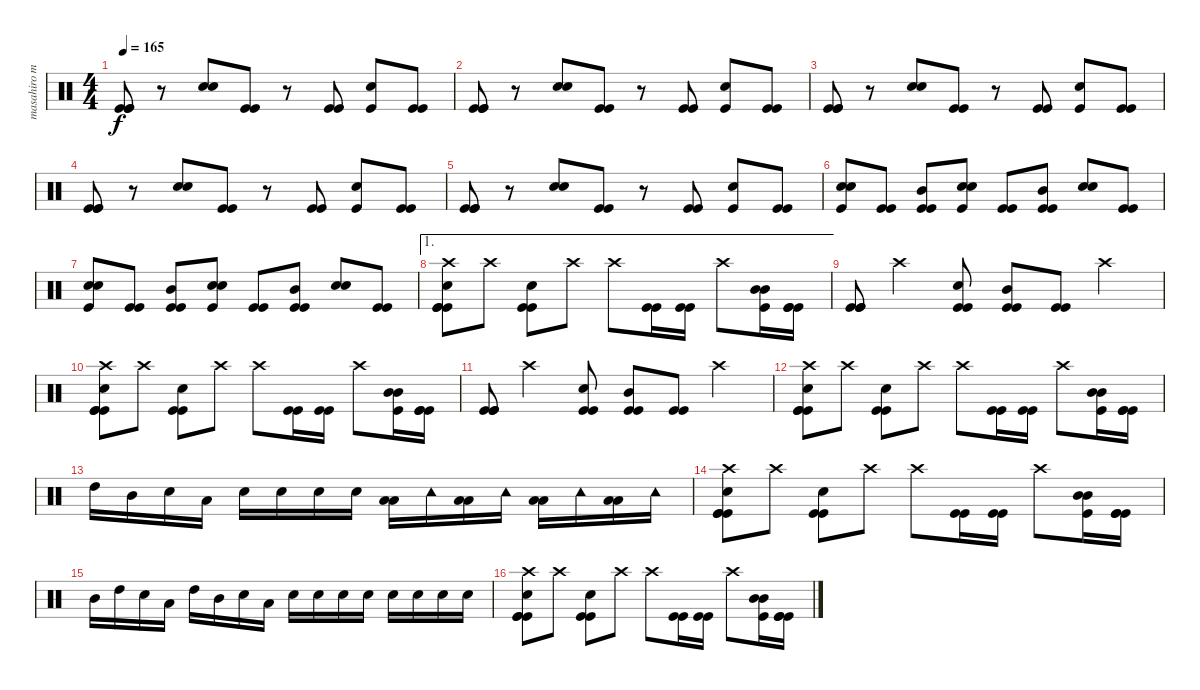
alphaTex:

\track ("masahiro muta" "masahiro m") {instrument percussion}
\staff {score}
\articulation defaults
\ts (4 4)
\tempo 165
\clef neutral
\ks c
("Kick (hit)" "Kick (hit)" "Kick (hit)").8{dy f} r.8 ("Electric Snare (hit)" "Electric Snare (hit)").8 ("Kick (hit)" "Kick (hit)").8 r.8 ("Kick (hit)" "Kick (hit)").8 ("Electric Snare (hit)" "Kick (hit)").8 ("Kick (hit)" "Kick (hit)").8 |
("Kick (hit)" "Kick (hit)" "Kick (hit)").8 r.8 ("Electric Snare (hit)" "Electric Snare (hit)").8 ("Kick (hit)" "Kick (hit)").8 r.8 ("Kick (hit)" "Kick (hit)").8 ("Electric Snare (hit)" "Kick (hit)").8 ("Kick (hit)" "Kick (hit)").8 |
("Kick (hit)" "Kick (hit)" "Kick (hit)").8 r.8 ("Electric Snare (hit)" "Electric Snare (hit)").8 ("Kick (hit)" "Kick (hit)").8 r.8 ("Kick (hit)" "Kick (hit)").8 ("Electric Snare (hit)" "Kick (hit)").8 ("Kick (hit)" "Kick (hit)").8 |
("Kick (hit)" "Kick (hit)" "Kick (hit)").8 r.8 ("Electric Snare (hit)" "Electric Snare (hit)").8 ("Kick (hit)" "Kick (hit)").8 r.8 ("Kick (hit)" "Kick (hit)").8 ("Electric Snare (hit)" "Kick (hit)").8 ("Kick (hit)" "Kick (hit)").8 |
("Kick (hit)" "Kick (hit)" "Kick (hit)").8 r.8 ("Electric Snare (hit)" "Electric Snare (hit)").8 ("Kick (hit)" "Kick (hit)").8 r.8 ("Kick (hit)" "Kick (hit)").8 ("Electric Snare (hit)" "Kick (hit)").8 ("Kick (hit)" "Kick (hit)").8 |
("Electric Snare (hit)" "Kick (hit)" "Electric Snare (hit)").8 ("Kick (hit)" "Kick (hit)").8 ("Mid Tom (hit)" "Kick (hit)" "Kick (hit)").8 ("Electric Snare (hit)" "Kick (hit)" "Electric Snare (hit)").8 ("Kick (hit)" "Kick (hit)").8 ("Mid Tom (hit)" "Kick (hit)" "Kick (hit)").8 ("Electric Snare (hit)" "Electric Snare (hit)").8 ("Kick (hit)" "Kick (hit)").8 |
("Electric Snare (hit)" "Kick (hit)" "Electric Snare (hit)").8 ("Kick (hit)" "Kick (hit)").8 ("Mid Tom (hit)" "Kick (hit)" "Kick (hit)").8 ("Electric Snare (hit)" "Kick (hit)" "Electric Snare (hit)").8 ("Kick (hit)" "Kick (hit)").8 ("Mid Tom (hit)" "Kick (hit)" "Kick (hit)").8 ("Electric Snare (hit)" "Electric Snare (hit)").8 ("Kick (hit)" "Kick (hit)").8 |
\ae 1
("Crash high (hit)" "Kick (hit)" "Kick (hit)" "Kick (hit)" "Electric Snare (hit)").8 "Crash high (hit)".8 ("Kick (hit)" "Electric Snare (hit)" "Kick (hit)").8 "Crash high (hit)".8 "Crash high (hit)".8 ("Kick (hit)" "Kick (hit)").16 ("Kick (hit)" "Kick (hit)").16 "Crash high (hit)".8 ("Mid Tom (hit)" "Kick (hit)" "Mid Tom (hit)").16 ("Kick (hit)" "Kick (hit)" "Kick (hit)").16 |
("Kick (hit)" "Kick (hit)" "Kick (hit)").8 "Crash high (hit)".4 ("Electric Snare (hit)" "Kick (hit)" "Kick (hit)").8 ("Mid Tom (hit)" "Kick (hit)" "Kick (hit)").8 ("Kick (hit)" "Kick (hit)").8 "Crash high (hit)".4 |
("Crash high (hit)" "Kick (hit)" "Kick (hit)" "Kick (hit)" "Electric Snare (hit)").8 "Crash high (hit)".8 ("Kick (hit)" "Electric Snare (hit)" "Kick (hit)").8 "Crash high (hit)".8 "Crash high (hit)".8 ("Kick (hit)" "Kick (hit)").16 ("Kick (hit)" "Kick (hit)").16 "Crash high (hit)".8 ("Mid Tom (hit)" "Kick (hit)" "Mid Tom (hit)").16 ("Kick (hit)" "Kick (hit)" "Kick (hit)").16 |
("Kick (hit)" "Kick (hit)" "Kick (hit)").8 "Crash high (hit)".4 ("Electric Snare (hit)" "Kick (hit)" "Kick (hit)").8 ("Mid Tom (hit)" "Kick (hit)" "Kick (hit)").8 ("Kick (hit)" "Kick (hit)").8 "Crash high (hit)".4 |
("Crash high (hit)" "Kick (hit)" "Kick (hit)" "Kick (hit)" "Electric Snare (hit)").8 "Crash high (hit)".8 ("Kick (hit)" "Electric Snare (hit)" "Kick (hit)").8 "Crash high (hit)".8 "Crash high (hit)".8 ("Kick (hit)" "Kick (hit)").16 ("Kick (hit)" "Kick (hit)").16 "Crash high (hit)".8 ("Mid Tom (hit)" "Kick (hit)" "Mid Tom (hit)").16 ("Kick (hit)" "Kick (hit)" "Kick (hit)").16 |
"High Tom (hit)".16 "Mid Tom (hit)".16 "Snare (hit) 2".16 "Low Tom (hit)".16 "Snare (hit) 2".16 "Snare (hit) 2".16 "Snare (hit) 2".16 "Snare (hit) 2".16 ("Low Tom (hit)" "Low Tom (hit)").16 "Tambourine (hit)".16 ("Low Tom (hit)" "Low Tom (hit)").16 "Tambourine (hit)".16 ("Low Tom (hit)" "Low Tom (hit)").16 "Tambourine (hit)".16 ("Low Tom (hit)" "Low Tom (hit)").16 "Tambourine (hit)".16 |
("Crash high (hit)" "Kick (hit)" "Kick (hit)" "Kick (hit)" "Electric Snare (hit)").8 "Crash high (hit)".8 ("Kick (hit)" "Electric Snare (hit)" "Kick (hit)").8 "Crash high (hit)".8 "Crash high (hit)".8 ("Kick (hit)" "Kick (hit)").16 ("Kick (hit)" "Kick (hit)").16 "Crash high (hit)".8 ("Mid Tom (hit)" "Kick (hit)" "Mid Tom (hit)").16 ("Kick (hit)" "Kick (hit)" "Kick (hit)").16 |
"Mid Tom (hit)".16 "High Tom (hit)".16 "Electric Snare (hit)".16 "Low Tom (hit)".16 "High Tom (hit)".16 "Mid Tom (hit)".16 "Electric Snare (hit)".16 "Low Tom (hit)".16 "Snare (hit) 2".16 "Snare (hit) 2".16 "Snare (hit) 2".16 "Snare (hit) 2".16 "Snare (hit) 2".16 "Snare (hit) 2".16 "Snare (hit) 2".16 "Snare (hit) 2".16 |
("Crash high (hit)" "Kick (hit)" "Kick (hit)" "Kick (hit)" "Electric Snare (hit)").8 "Crash high (hit)".8 ("Kick (hit)" "Electric Snare (hit)" "Kick (hit)").8 "Crash high (hit)".8 "Crash high (hit)".8 ("Kick (hit)" "Kick (hit)").16 ("Kick (hit)" "Kick (hit)").16 "Crash high (hit)".8 ("Mid Tom (hit)" "Kick (hit)" "Mid Tom (hit)").16 ("Kick (hit)" "Kick (hit)" "Kick (hit)").16
